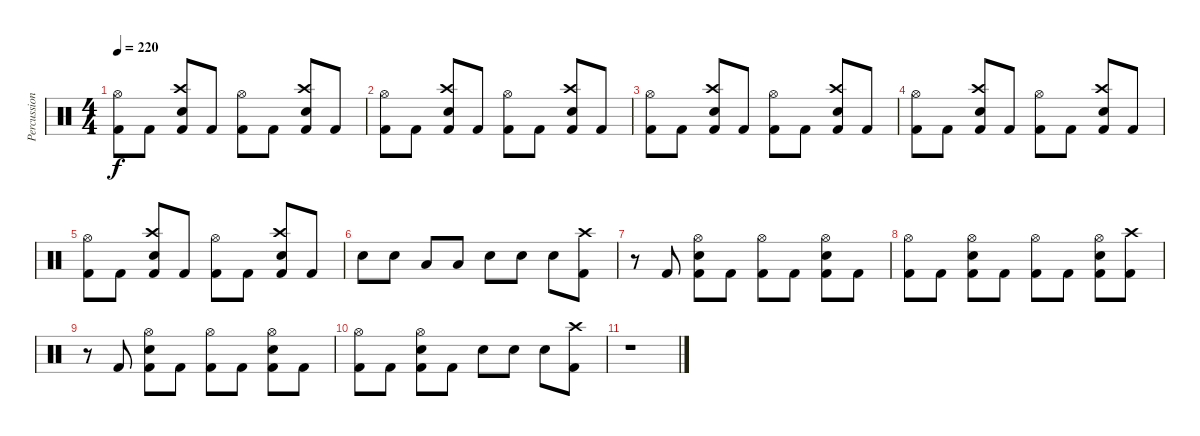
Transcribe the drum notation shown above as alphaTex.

\track ("Percussions" "Percussion") {instrument percussion}
\staff {score}
\articulation defaults
\ts (4 4)
\tempo 220
\clef neutral
\ks c
("Hi-Hat (open)" "Kick (hit) 2").8{dy f} "Kick (hit) 2".8 ("Crash high (hit)" "Electric Snare (hit)" "Kick (hit) 2").8 "Kick (hit) 2".8 ("Hi-Hat (open)" "Kick (hit) 2").8 "Kick (hit) 2".8 ("Crash high (hit)" "Electric Snare (hit)" "Kick (hit) 2").8 "Kick (hit) 2".8 |
("Hi-Hat (open)" "Kick (hit) 2").8 "Kick (hit) 2".8 ("Crash high (hit)" "Electric Snare (hit)" "Kick (hit) 2").8 "Kick (hit) 2".8 ("Hi-Hat (open)" "Kick (hit) 2").8 "Kick (hit) 2".8 ("Crash high (hit)" "Electric Snare (hit)" "Kick (hit) 2").8 "Kick (hit) 2".8 |
("Hi-Hat (open)" "Kick (hit) 2").8 "Kick (hit) 2".8 ("Crash high (hit)" "Electric Snare (hit)" "Kick (hit) 2").8 "Kick (hit) 2".8 ("Hi-Hat (open)" "Kick (hit) 2").8 "Kick (hit) 2".8 ("Crash high (hit)" "Electric Snare (hit)" "Kick (hit) 2").8 "Kick (hit) 2".8 |
("Hi-Hat (open)" "Kick (hit) 2").8 "Kick (hit) 2".8 ("Crash high (hit)" "Electric Snare (hit)" "Kick (hit) 2").8 "Kick (hit) 2".8 ("Hi-Hat (open)" "Kick (hit) 2").8 "Kick (hit) 2".8 ("Crash high (hit)" "Electric Snare (hit)" "Kick (hit) 2").8 "Kick (hit) 2".8 |
("Hi-Hat (open)" "Kick (hit) 2").8 "Kick (hit) 2".8 ("Crash high (hit)" "Electric Snare (hit)" "Kick (hit) 2").8 "Kick (hit) 2".8 ("Hi-Hat (open)" "Kick (hit) 2").8 "Kick (hit) 2".8 ("Crash high (hit)" "Electric Snare (hit)" "Kick (hit) 2").8 "Kick (hit) 2".8 |
"Electric Snare (hit)".8 "Electric Snare (hit)".8 "Low Tom (hit)".8 "Low Tom (hit)".8 "Electric Snare (hit)".8 "Electric Snare (hit)".8 "Electric Snare (hit)".8 ("Crash high (hit)" "Kick (hit) 2").8 |
r.8 "Kick (hit) 2".8 ("Hi-Hat (open)" "Electric Snare (hit)" "Kick (hit) 2").8 "Kick (hit) 2".8 ("Hi-Hat (open)" "Kick (hit) 2").8 "Kick (hit) 2".8 ("Hi-Hat (open)" "Electric Snare (hit)" "Kick (hit) 2").8 "Kick (hit) 2".8 |
("Hi-Hat (open)" "Kick (hit) 2").8 "Kick (hit) 2".8 ("Hi-Hat (open)" "Electric Snare (hit)" "Kick (hit) 2").8 "Kick (hit) 2".8 ("Hi-Hat (open)" "Kick (hit) 2").8 "Kick (hit) 2".8 ("Hi-Hat (open)" "Electric Snare (hit)" "Kick (hit) 2").8 ("Crash high (hit)" "Kick (hit) 2").8 |
r.8 "Kick (hit) 2".8 ("Hi-Hat (open)" "Electric Snare (hit)" "Kick (hit) 2").8 "Kick (hit) 2".8 ("Hi-Hat (open)" "Kick (hit) 2").8 "Kick (hit) 2".8 ("Hi-Hat (open)" "Electric Snare (hit)" "Kick (hit) 2").8 "Kick (hit) 2".8 |
("Hi-Hat (open)" "Kick (hit) 2").8 "Kick (hit) 2".8 ("Hi-Hat (open)" "Electric Snare (hit)" "Kick (hit) 2").8 "Kick (hit) 2".8 "Electric Snare (hit)".8 "Electric Snare (hit)".8 "Electric Snare (hit)".8 ("Crash high (hit)" "Kick (hit) 2").8 |
r.1
